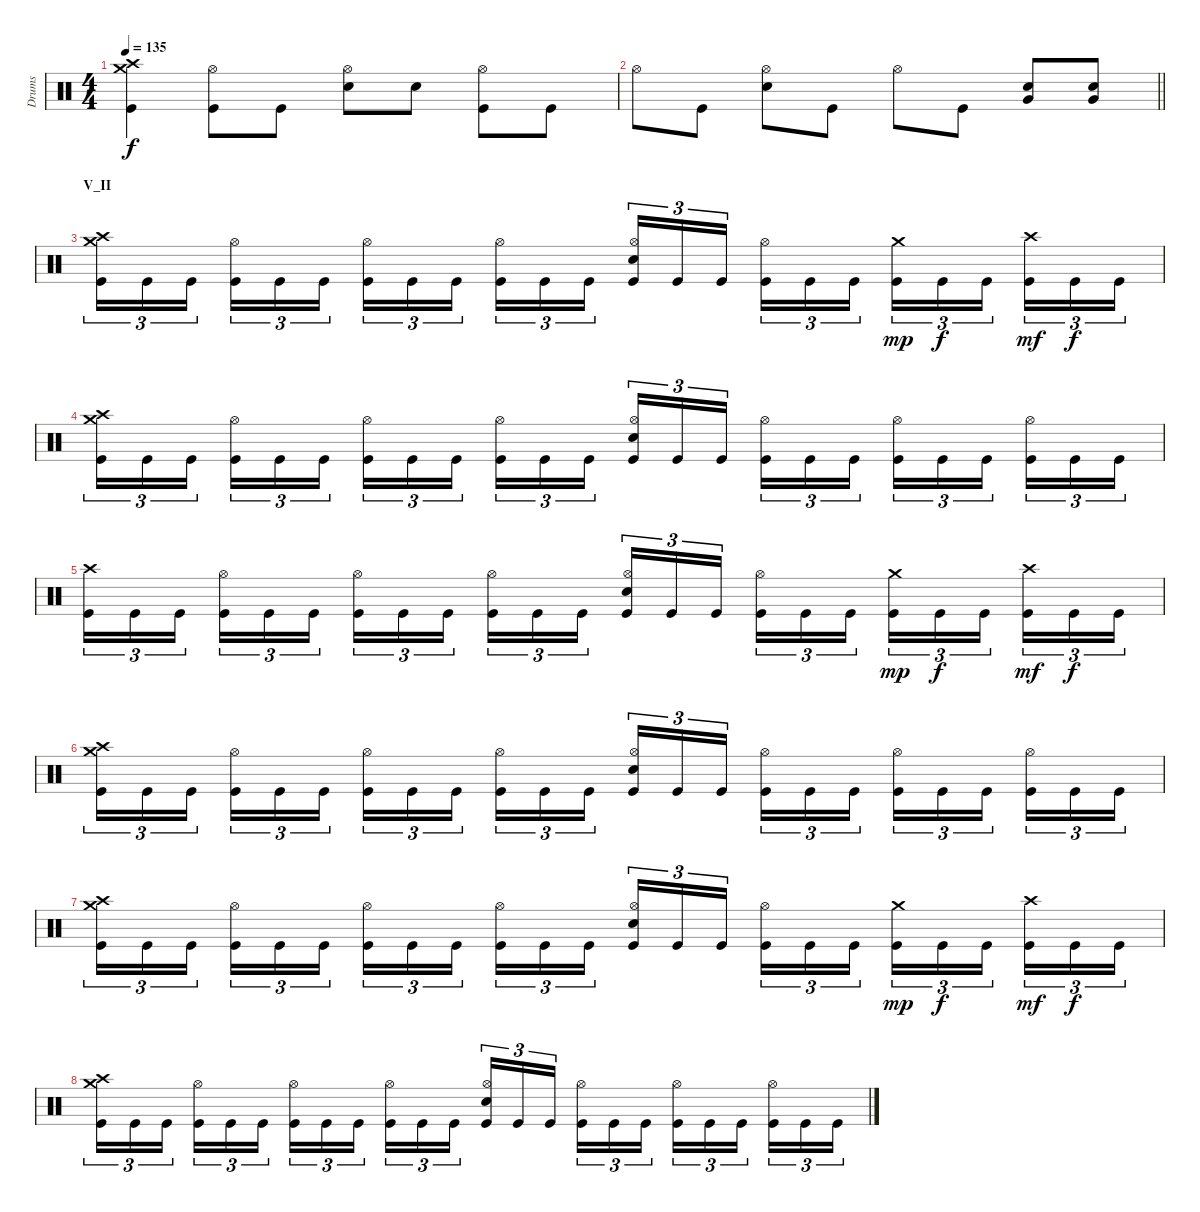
\track ("Drums" "Drums") {instrument percussion}
\staff {score}
\articulation defaults
\ts (4 4)
\tempo 135
\clef neutral
\ks c
("Kick (hit)" "Crash high (hit)" "Crash medium (hit)").4{dy f} ("Kick (hit)" "Hi-Hat (open)").8 "Kick (hit)".8 ("Electric Snare (hit)" "Hi-Hat (open)").8 "Electric Snare (hit)".8 ("Kick (hit)" "Hi-Hat (open)").8 "Kick (hit)".8 |
\barLineRight lightlight "Hi-Hat (open)".8 "Kick (hit)".8
("Electric Snare (hit)" "Hi-Hat (open)").8 "Kick (hit)".8 "Hi-Hat (open)".8 "Kick (hit)".8 ("Electric Snare (hit)" "Very Low Tom (hit)").8 ("Electric Snare (hit)" "Very Low Tom (hit)").8 |
\section ("" "V_II")
("Kick (hit)" "Crash high (hit)" "Crash medium (hit)").16{tu (3 2)} "Kick (hit)".16{tu (3 2)} "Kick (hit)".16{tu (3 2) beam splitsecondary} ("Kick (hit)" "Hi-Hat (open)").16{tu (3 2)} "Kick (hit)".16{tu (3 2)} "Kick (hit)".16{tu (3 2)} ("Kick (hit)" "Hi-Hat (open)").16{tu (3 2)} "Kick (hit)".16{tu (3 2)} "Kick (hit)".16{tu (3 2) beam splitsecondary} ("Kick (hit)" "Hi-Hat (open)").16{tu (3 2)} "Kick (hit)".16{tu (3 2)} "Kick (hit)".16{tu (3 2)} ("Kick (hit)" "Electric Snare (hit)" "Hi-Hat (open)").16{tu (3 2)} "Kick (hit)".16{tu (3 2)} "Kick (hit)".16{tu (3 2) beam splitsecondary} ("Kick (hit)" "Hi-Hat (open)").16{tu (3 2)} "Kick (hit)".16{tu (3 2)} "Kick (hit)".16{tu (3 2)} ("Kick (hit)" "Crash medium (hit)").16{tu (3 2) dy mp} "Kick (hit)".16{tu (3 2) dy f} "Kick (hit)".16{tu (3 2) beam splitsecondary} ("Kick (hit)" "Crash high (hit)").16{tu (3 2) dy mf} "Kick (hit)".16{tu (3 2) dy f} "Kick (hit)".16{tu (3 2)} |
("Kick (hit)" "Crash medium (hit)" "Crash high (hit)").16{tu (3 2)} "Kick (hit)".16{tu (3 2)} "Kick (hit)".16{tu (3 2) beam splitsecondary} ("Kick (hit)" "Hi-Hat (open)").16{tu (3 2)} "Kick (hit)".16{tu (3 2)} "Kick (hit)".16{tu (3 2)} ("Kick (hit)" "Hi-Hat (open)").16{tu (3 2)} "Kick (hit)".16{tu (3 2)} "Kick (hit)".16{tu (3 2) beam splitsecondary} ("Kick (hit)" "Hi-Hat (open)").16{tu (3 2)} "Kick (hit)".16{tu (3 2)} "Kick (hit)".16{tu (3 2)} ("Kick (hit)" "Electric Snare (hit)" "Hi-Hat (open)").16{tu (3 2)} "Kick (hit)".16{tu (3 2)} "Kick (hit)".16{tu (3 2) beam splitsecondary} ("Kick (hit)" "Hi-Hat (open)").16{tu (3 2)} "Kick (hit)".16{tu (3 2)} "Kick (hit)".16{tu (3 2)} ("Kick (hit)" "Hi-Hat (open)").16{tu (3 2)} "Kick (hit)".16{tu (3 2)} "Kick (hit)".16{tu (3 2) beam splitsecondary} ("Kick (hit)" "Hi-Hat (open)").16{tu (3 2)} "Kick (hit)".16{tu (3 2)} "Kick (hit)".16{tu (3 2)} |
("Kick (hit)" "Crash high (hit)").16{tu (3 2)} "Kick (hit)".16{tu (3 2)} "Kick (hit)".16{tu (3 2) beam splitsecondary} ("Kick (hit)" "Hi-Hat (open)").16{tu (3 2)} "Kick (hit)".16{tu (3 2)} "Kick (hit)".16{tu (3 2)} ("Kick (hit)" "Hi-Hat (open)").16{tu (3 2)} "Kick (hit)".16{tu (3 2)} "Kick (hit)".16{tu (3 2) beam splitsecondary} ("Kick (hit)" "Hi-Hat (open)").16{tu (3 2)} "Kick (hit)".16{tu (3 2)} "Kick (hit)".16{tu (3 2)} ("Kick (hit)" "Electric Snare (hit)" "Hi-Hat (open)").16{tu (3 2)} "Kick (hit)".16{tu (3 2)} "Kick (hit)".16{tu (3 2) beam splitsecondary} ("Kick (hit)" "Hi-Hat (open)").16{tu (3 2)} "Kick (hit)".16{tu (3 2)} "Kick (hit)".16{tu (3 2)} ("Kick (hit)" "Crash medium (hit)").16{tu (3 2) dy mp} "Kick (hit)".16{tu (3 2) dy f} "Kick (hit)".16{tu (3 2) beam splitsecondary} ("Kick (hit)" "Crash high (hit)").16{tu (3 2) dy mf} "Kick (hit)".16{tu (3 2) dy f} "Kick (hit)".16{tu (3 2)} |
("Kick (hit)" "Crash medium (hit)" "Crash high (hit)").16{tu (3 2)} "Kick (hit)".16{tu (3 2)} "Kick (hit)".16{tu (3 2) beam splitsecondary} ("Kick (hit)" "Hi-Hat (open)").16{tu (3 2)} "Kick (hit)".16{tu (3 2)} "Kick (hit)".16{tu (3 2)} ("Kick (hit)" "Hi-Hat (open)").16{tu (3 2)} "Kick (hit)".16{tu (3 2)} "Kick (hit)".16{tu (3 2) beam splitsecondary} ("Kick (hit)" "Hi-Hat (open)").16{tu (3 2)} "Kick (hit)".16{tu (3 2)} "Kick (hit)".16{tu (3 2)} ("Kick (hit)" "Electric Snare (hit)" "Hi-Hat (open)").16{tu (3 2)} "Kick (hit)".16{tu (3 2)} "Kick (hit)".16{tu (3 2) beam splitsecondary} ("Kick (hit)" "Hi-Hat (open)").16{tu (3 2)} "Kick (hit)".16{tu (3 2)} "Kick (hit)".16{tu (3 2)} ("Kick (hit)" "Hi-Hat (open)").16{tu (3 2)} "Kick (hit)".16{tu (3 2)} "Kick (hit)".16{tu (3 2) beam splitsecondary} ("Kick (hit)" "Hi-Hat (open)").16{tu (3 2)} "Kick (hit)".16{tu (3 2)} "Kick (hit)".16{tu (3 2)} |
("Kick (hit)" "Crash high (hit)" "Crash medium (hit)").16{tu (3 2)} "Kick (hit)".16{tu (3 2)} "Kick (hit)".16{tu (3 2) beam splitsecondary} ("Kick (hit)" "Hi-Hat (open)").16{tu (3 2)} "Kick (hit)".16{tu (3 2)} "Kick (hit)".16{tu (3 2)} ("Kick (hit)" "Hi-Hat (open)").16{tu (3 2)} "Kick (hit)".16{tu (3 2)} "Kick (hit)".16{tu (3 2) beam splitsecondary} ("Kick (hit)" "Hi-Hat (open)").16{tu (3 2)} "Kick (hit)".16{tu (3 2)} "Kick (hit)".16{tu (3 2)} ("Kick (hit)" "Electric Snare (hit)" "Hi-Hat (open)").16{tu (3 2)} "Kick (hit)".16{tu (3 2)} "Kick (hit)".16{tu (3 2) beam splitsecondary} ("Kick (hit)" "Hi-Hat (open)").16{tu (3 2)} "Kick (hit)".16{tu (3 2)} "Kick (hit)".16{tu (3 2)} ("Kick (hit)" "Crash medium (hit)").16{tu (3 2) dy mp} "Kick (hit)".16{tu (3 2) dy f} "Kick (hit)".16{tu (3 2) beam splitsecondary} ("Kick (hit)" "Crash high (hit)").16{tu (3 2) dy mf} "Kick (hit)".16{tu (3 2) dy f} "Kick (hit)".16{tu (3 2)} |
("Kick (hit)" "Crash medium (hit)" "Crash high (hit)").16{tu (3 2)} "Kick (hit)".16{tu (3 2)} "Kick (hit)".16{tu (3 2) beam splitsecondary} ("Kick (hit)" "Hi-Hat (open)").16{tu (3 2)} "Kick (hit)".16{tu (3 2)} "Kick (hit)".16{tu (3 2)} ("Kick (hit)" "Hi-Hat (open)").16{tu (3 2)} "Kick (hit)".16{tu (3 2)} "Kick (hit)".16{tu (3 2) beam splitsecondary} ("Kick (hit)" "Hi-Hat (open)").16{tu (3 2)} "Kick (hit)".16{tu (3 2)} "Kick (hit)".16{tu (3 2)} ("Kick (hit)" "Electric Snare (hit)" "Hi-Hat (open)").16{tu (3 2)} "Kick (hit)".16{tu (3 2)} "Kick (hit)".16{tu (3 2) beam splitsecondary} ("Kick (hit)" "Hi-Hat (open)").16{tu (3 2)} "Kick (hit)".16{tu (3 2)} "Kick (hit)".16{tu (3 2)} ("Kick (hit)" "Hi-Hat (open)").16{tu (3 2)} "Kick (hit)".16{tu (3 2)} "Kick (hit)".16{tu (3 2) beam splitsecondary} ("Kick (hit)" "Hi-Hat (open)").16{tu (3 2)} "Kick (hit)".16{tu (3 2)} "Kick (hit)".16{tu (3 2)}
